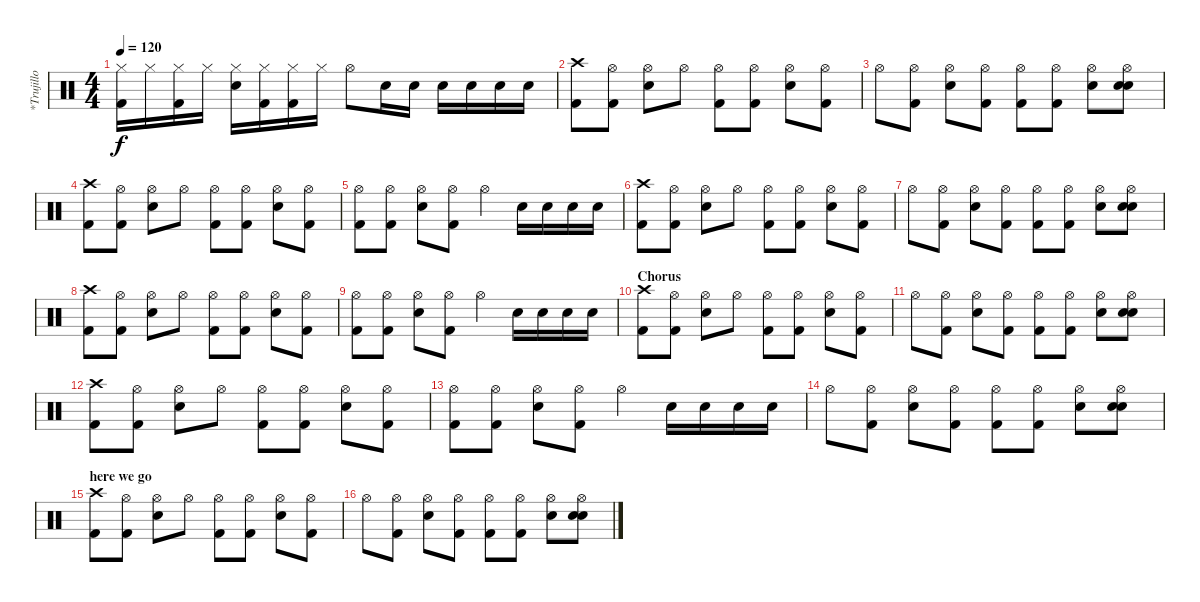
\track ("*Trujillo" "*Trujillo") {instrument percussion}
\staff {score}
\articulation defaults
\ts (4 4)
\tempo 120
\clef neutral
\ks c
("Hi-Hat (closed)" "Kick (hit) 2").16{dy f} "Hi-Hat (closed)".16 ("Hi-Hat (closed)" "Kick (hit) 2").16 "Hi-Hat (closed)".16 ("Hi-Hat (closed)" "Electric Snare (hit)").16 ("Hi-Hat (closed)" "Kick (hit) 2").16 ("Hi-Hat (closed)" "Kick (hit) 2").16 "Hi-Hat (closed)".16 "Hi-Hat (open)".8 "Electric Snare (hit)".16 "Electric Snare (hit)".16 "Electric Snare (hit)".16 "Electric Snare (hit)".16 "Electric Snare (hit)".16 "Electric Snare (hit)".16 |
("Crash high (hit)" "Kick (hit) 2").8 ("Hi-Hat (open)" "Kick (hit) 2").8 ("Hi-Hat (open)" "Electric Snare (hit)").8 "Hi-Hat (open)".8 ("Hi-Hat (open)" "Kick (hit) 2").8 ("Hi-Hat (open)" "Kick (hit) 2").8 ("Hi-Hat (open)" "Electric Snare (hit)").8 ("Hi-Hat (open)" "Kick (hit) 2").8 |
"Hi-Hat (open)".8 ("Hi-Hat (open)" "Kick (hit) 2").8 ("Hi-Hat (open)" "Electric Snare (hit)").8 ("Hi-Hat (open)" "Kick (hit) 2"{x}).8 ("Hi-Hat (open)" "Kick (hit) 2").8 ("Hi-Hat (open)" "Kick (hit) 2").8 ("Hi-Hat (open)" "Electric Snare (hit)").8 ("Hi-Hat (open)" "Snare (hit)" "Electric Snare (hit)"{x}).8 |
("Crash high (hit)" "Kick (hit) 2").8 ("Hi-Hat (open)" "Kick (hit) 2").8 ("Hi-Hat (open)" "Electric Snare (hit)").8 "Hi-Hat (open)".8 ("Hi-Hat (open)" "Kick (hit) 2").8 ("Hi-Hat (open)" "Kick (hit) 2").8 ("Hi-Hat (open)" "Electric Snare (hit)").8 ("Hi-Hat (open)" "Kick (hit) 2").8 |
("Hi-Hat (open)" "Kick (hit) 2").8 ("Hi-Hat (open)" "Kick (hit) 2").8 ("Hi-Hat (open)" "Electric Snare (hit)").8 ("Hi-Hat (open)" "Kick (hit) 2").8 "Hi-Hat (open)".4 "Electric Snare (hit)".16 "Electric Snare (hit)".16 "Electric Snare (hit)".16 "Electric Snare (hit)".16 |
("Crash high (hit)" "Kick (hit) 2").8 ("Hi-Hat (open)" "Kick (hit) 2").8 ("Hi-Hat (open)" "Electric Snare (hit)").8 "Hi-Hat (open)".8 ("Hi-Hat (open)" "Kick (hit) 2").8 ("Hi-Hat (open)" "Kick (hit) 2").8 ("Hi-Hat (open)" "Electric Snare (hit)").8 ("Hi-Hat (open)" "Kick (hit) 2").8 |
"Hi-Hat (open)".8 ("Hi-Hat (open)" "Kick (hit) 2").8 ("Hi-Hat (open)" "Electric Snare (hit)").8 ("Hi-Hat (open)" "Kick (hit) 2"{x}).8 ("Hi-Hat (open)" "Kick (hit) 2").8 ("Hi-Hat (open)" "Kick (hit) 2").8 ("Hi-Hat (open)" "Electric Snare (hit)").8 ("Hi-Hat (open)" "Snare (hit)" "Electric Snare (hit)"{x}).8 |
("Crash high (hit)" "Kick (hit) 2").8 ("Hi-Hat (open)" "Kick (hit) 2").8 ("Hi-Hat (open)" "Electric Snare (hit)").8 "Hi-Hat (open)".8 ("Hi-Hat (open)" "Kick (hit) 2").8 ("Hi-Hat (open)" "Kick (hit) 2").8 ("Hi-Hat (open)" "Electric Snare (hit)").8 ("Hi-Hat (open)" "Kick (hit) 2").8 |
("Hi-Hat (open)" "Kick (hit) 2").8 ("Hi-Hat (open)" "Kick (hit) 2").8 ("Hi-Hat (open)" "Electric Snare (hit)").8 ("Hi-Hat (open)" "Kick (hit) 2").8 "Hi-Hat (open)".4 "Electric Snare (hit)".16 "Electric Snare (hit)".16 "Electric Snare (hit)".16 "Electric Snare (hit)".16 |
\section ("" "Chorus")
("Crash high (hit)" "Kick (hit) 2").8 ("Hi-Hat (open)" "Kick (hit) 2").8 ("Hi-Hat (open)" "Electric Snare (hit)").8 "Hi-Hat (open)".8 ("Hi-Hat (open)" "Kick (hit) 2").8 ("Hi-Hat (open)" "Kick (hit) 2").8 ("Hi-Hat (open)" "Electric Snare (hit)").8 ("Hi-Hat (open)" "Kick (hit) 2").8 |
"Hi-Hat (open)".8 ("Hi-Hat (open)" "Kick (hit) 2").8 ("Hi-Hat (open)" "Electric Snare (hit)").8 ("Hi-Hat (open)" "Kick (hit) 2"{x}).8 ("Hi-Hat (open)" "Kick (hit) 2").8 ("Hi-Hat (open)" "Kick (hit) 2").8 ("Hi-Hat (open)" "Electric Snare (hit)").8 ("Hi-Hat (open)" "Snare (hit)" "Electric Snare (hit)"{x}).8 |
("Crash high (hit)" "Kick (hit) 2").8 ("Hi-Hat (open)" "Kick (hit) 2").8 ("Hi-Hat (open)" "Electric Snare (hit)").8 "Hi-Hat (open)".8 ("Hi-Hat (open)" "Kick (hit) 2").8 ("Hi-Hat (open)" "Kick (hit) 2").8 ("Hi-Hat (open)" "Electric Snare (hit)").8 ("Hi-Hat (open)" "Kick (hit) 2").8 |
("Hi-Hat (open)" "Kick (hit) 2").8 ("Hi-Hat (open)" "Kick (hit) 2").8 ("Hi-Hat (open)" "Electric Snare (hit)").8 ("Hi-Hat (open)" "Kick (hit) 2").8 "Hi-Hat (open)".4 "Electric Snare (hit)".16 "Electric Snare (hit)".16 "Electric Snare (hit)".16 "Electric Snare (hit)".16 |
"Hi-Hat (open)".8 ("Hi-Hat (open)" "Kick (hit) 2").8 ("Hi-Hat (open)" "Electric Snare (hit)").8 ("Hi-Hat (open)" "Kick (hit) 2"{x}).8 ("Hi-Hat (open)" "Kick (hit) 2").8 ("Hi-Hat (open)" "Kick (hit) 2").8 ("Hi-Hat (open)" "Electric Snare (hit)").8 ("Hi-Hat (open)" "Snare (hit)" "Electric Snare (hit)"{x}).8 |
\section ("" "here we go")
("Crash high (hit)" "Kick (hit) 2").8 ("Hi-Hat (open)" "Kick (hit) 2").8 ("Hi-Hat (open)" "Electric Snare (hit)").8 "Hi-Hat (open)".8 ("Hi-Hat (open)" "Kick (hit) 2").8 ("Hi-Hat (open)" "Kick (hit) 2").8 ("Hi-Hat (open)" "Electric Snare (hit)").8 ("Hi-Hat (open)" "Kick (hit) 2").8 |
"Hi-Hat (open)".8 ("Hi-Hat (open)" "Kick (hit) 2").8 ("Hi-Hat (open)" "Electric Snare (hit)").8 ("Hi-Hat (open)" "Kick (hit) 2"{x}).8 ("Hi-Hat (open)" "Kick (hit) 2").8 ("Hi-Hat (open)" "Kick (hit) 2").8 ("Hi-Hat (open)" "Electric Snare (hit)").8 ("Hi-Hat (open)" "Snare (hit)" "Electric Snare (hit)"{x}).8
